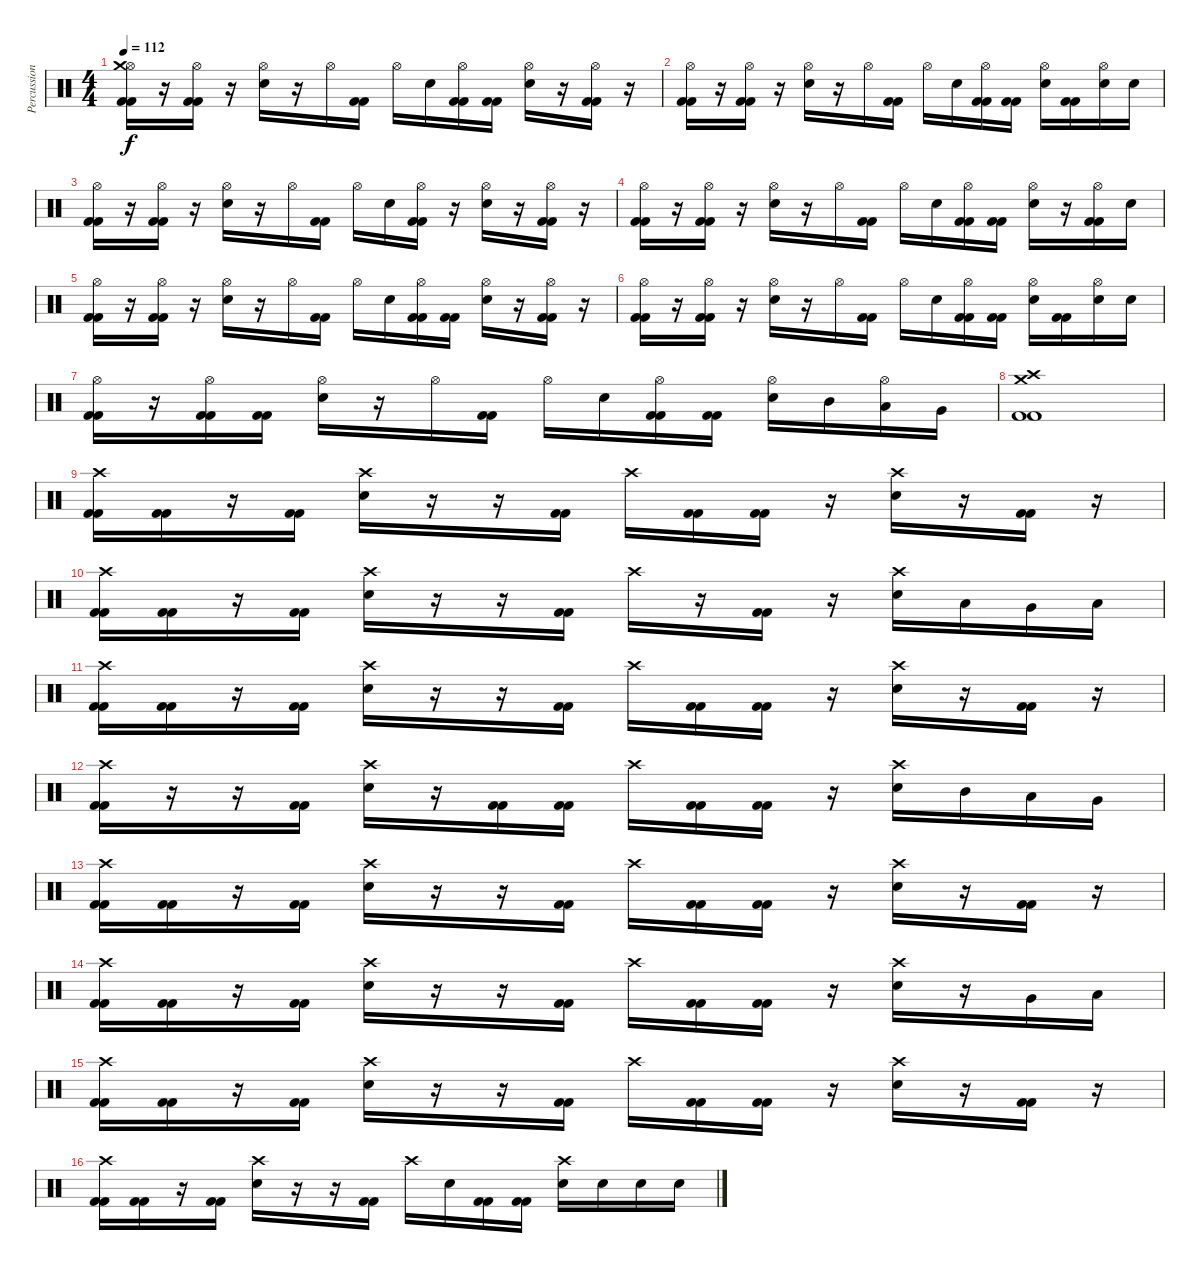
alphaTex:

\track ("Percussion" "Percussion") {instrument percussion}
\staff {score}
\articulation defaults
\ts (4 4)
\tempo 112
\clef neutral
\ks c
("Hi-Hat (open)" "Crash medium (hit)" "Kick (hit) 2" "Kick (hit) 2").16{dy f} r.16 ("Hi-Hat (open)" "Kick (hit) 2" "Kick (hit) 2").16 r.16 ("Hi-Hat (open)" "Electric Snare (hit)").16 r.16 "Hi-Hat (open)".16 ("Kick (hit) 2" "Kick (hit) 2").16 "Hi-Hat (open)".16 "Electric Snare (hit)".16 ("Hi-Hat (open)" "Kick (hit) 2" "Kick (hit) 2").16 ("Kick (hit) 2" "Kick (hit) 2").16 ("Hi-Hat (open)" "Electric Snare (hit)").16 r.16 ("Hi-Hat (open)" "Kick (hit) 2" "Kick (hit) 2").16 r.16 |
("Hi-Hat (open)" "Kick (hit) 2" "Kick (hit) 2").16 r.16 ("Hi-Hat (open)" "Kick (hit) 2" "Kick (hit) 2").16 r.16 ("Hi-Hat (open)" "Electric Snare (hit)").16 r.16 "Hi-Hat (open)".16 ("Kick (hit) 2" "Kick (hit) 2").16 "Hi-Hat (open)".16 "Electric Snare (hit)".16 ("Hi-Hat (open)" "Kick (hit) 2" "Kick (hit) 2").16 ("Kick (hit) 2" "Kick (hit) 2").16 ("Hi-Hat (open)" "Electric Snare (hit)").16 ("Kick (hit) 2" "Kick (hit) 2").16 ("Hi-Hat (open)" "Electric Snare (hit)").16 "Electric Snare (hit)".16 |
("Hi-Hat (open)" "Kick (hit) 2" "Kick (hit) 2").16 r.16 ("Hi-Hat (open)" "Kick (hit) 2" "Kick (hit) 2").16 r.16 ("Hi-Hat (open)" "Electric Snare (hit)").16 r.16 "Hi-Hat (open)".16 ("Kick (hit) 2" "Kick (hit) 2").16 "Hi-Hat (open)".16 "Electric Snare (hit)".16 ("Hi-Hat (open)" "Kick (hit) 2" "Kick (hit) 2").16 r.16 ("Hi-Hat (open)" "Electric Snare (hit)").16 r.16 ("Hi-Hat (open)" "Kick (hit) 2" "Kick (hit) 2").16 r.16 |
("Hi-Hat (open)" "Kick (hit) 2" "Kick (hit) 2").16 r.16 ("Hi-Hat (open)" "Kick (hit) 2" "Kick (hit) 2").16 r.16 ("Hi-Hat (open)" "Electric Snare (hit)").16 r.16 "Hi-Hat (open)".16 ("Kick (hit) 2" "Kick (hit) 2").16 "Hi-Hat (open)".16 "Electric Snare (hit)".16 ("Hi-Hat (open)" "Kick (hit) 2" "Kick (hit) 2").16 ("Kick (hit) 2" "Kick (hit) 2").16 ("Hi-Hat (open)" "Electric Snare (hit)").16 r.16 ("Hi-Hat (open)" "Kick (hit) 2" "Kick (hit) 2").16 "Electric Snare (hit)".16 |
("Hi-Hat (open)" "Kick (hit) 2" "Kick (hit) 2").16 r.16 ("Hi-Hat (open)" "Kick (hit) 2" "Kick (hit) 2").16 r.16 ("Hi-Hat (open)" "Electric Snare (hit)").16 r.16 "Hi-Hat (open)".16 ("Kick (hit) 2" "Kick (hit) 2").16 "Hi-Hat (open)".16 "Electric Snare (hit)".16 ("Hi-Hat (open)" "Kick (hit) 2" "Kick (hit) 2").16 ("Kick (hit) 2" "Kick (hit) 2").16 ("Hi-Hat (open)" "Electric Snare (hit)").16 r.16 ("Hi-Hat (open)" "Kick (hit) 2" "Kick (hit) 2").16 r.16 |
("Hi-Hat (open)" "Kick (hit) 2" "Kick (hit) 2").16 r.16 ("Hi-Hat (open)" "Kick (hit) 2" "Kick (hit) 2").16 r.16 ("Hi-Hat (open)" "Electric Snare (hit)").16 r.16 "Hi-Hat (open)".16 ("Kick (hit) 2" "Kick (hit) 2").16 "Hi-Hat (open)".16 "Electric Snare (hit)".16 ("Hi-Hat (open)" "Kick (hit) 2" "Kick (hit) 2").16 ("Kick (hit) 2" "Kick (hit) 2").16 ("Hi-Hat (open)" "Electric Snare (hit)").16 ("Kick (hit) 2" "Kick (hit) 2").16 ("Hi-Hat (open)" "Electric Snare (hit)").16 "Electric Snare (hit)".16 |
("Hi-Hat (open)" "Kick (hit) 2" "Kick (hit) 2").16 r.16 ("Hi-Hat (open)" "Kick (hit) 2" "Kick (hit) 2").16 ("Kick (hit) 2" "Kick (hit) 2").16 ("Hi-Hat (open)" "Electric Snare (hit)").16 r.16 "Hi-Hat (open)".16 ("Kick (hit) 2" "Kick (hit) 2").16 "Hi-Hat (open)".16 "Electric Snare (hit)".16 ("Hi-Hat (open)" "Kick (hit) 2" "Kick (hit) 2").16 ("Kick (hit) 2" "Kick (hit) 2").16 ("Hi-Hat (open)" "Electric Snare (hit)").16 "Mid Tom (hit)".16 ("Hi-Hat (open)" "Low Tom (hit)").16 "Very Low Tom (hit)".16 |
("Crash medium (hit)" "Crash high (hit)" "Kick (hit) 2" "Kick (hit) 2").1 |
("Crash high (hit)" "Kick (hit) 2" "Kick (hit) 2").16 ("Kick (hit) 2" "Kick (hit) 2").16 r.16 ("Kick (hit) 2" "Kick (hit) 2").16 ("Crash high (hit)" "Electric Snare (hit)").16 r.16 r.16 ("Kick (hit) 2" "Kick (hit) 2").16 "Crash high (hit)".16 ("Kick (hit) 2" "Kick (hit) 2").16 ("Kick (hit) 2" "Kick (hit) 2").16 r.16 ("Crash high (hit)" "Electric Snare (hit)").16 r.16 ("Kick (hit) 2" "Kick (hit) 2").16 r.16 |
("Crash high (hit)" "Kick (hit) 2" "Kick (hit) 2").16 ("Kick (hit) 2" "Kick (hit) 2").16 r.16 ("Kick (hit) 2" "Kick (hit) 2").16 ("Crash high (hit)" "Electric Snare (hit)").16 r.16 r.16 ("Kick (hit) 2" "Kick (hit) 2").16 "Crash high (hit)".16 r.16 ("Kick (hit) 2" "Kick (hit) 2").16 r.16 ("Crash high (hit)" "Electric Snare (hit)").16 "Low Tom (hit)".16 "Very Low Tom (hit)".16 "Low Floor Tom (hit)".16 |
("Crash high (hit)" "Kick (hit) 2" "Kick (hit) 2").16 ("Kick (hit) 2" "Kick (hit) 2").16 r.16 ("Kick (hit) 2" "Kick (hit) 2").16 ("Crash high (hit)" "Electric Snare (hit)").16 r.16 r.16 ("Kick (hit) 2" "Kick (hit) 2").16 "Crash high (hit)".16 ("Kick (hit) 2" "Kick (hit) 2").16 ("Kick (hit) 2" "Kick (hit) 2").16 r.16 ("Crash high (hit)" "Electric Snare (hit)").16 r.16 ("Kick (hit) 2" "Kick (hit) 2").16 r.16 |
("Crash high (hit)" "Kick (hit) 2" "Kick (hit) 2").16 r.16 r.16 ("Kick (hit) 2" "Kick (hit) 2").16 ("Crash high (hit)" "Electric Snare (hit)").16 r.16 ("Kick (hit) 2" "Kick (hit) 2").16 ("Kick (hit) 2" "Kick (hit) 2").16 "Crash high (hit)".16 ("Kick (hit) 2" "Kick (hit) 2").16 ("Kick (hit) 2" "Kick (hit) 2").16 r.16 ("Crash high (hit)" "Electric Snare (hit)").16 "Mid Tom (hit)".16 "Low Tom (hit)".16 "Very Low Tom (hit)".16 |
("Crash high (hit)" "Kick (hit) 2" "Kick (hit) 2").16 ("Kick (hit) 2" "Kick (hit) 2").16 r.16 ("Kick (hit) 2" "Kick (hit) 2").16 ("Crash high (hit)" "Electric Snare (hit)").16 r.16 r.16 ("Kick (hit) 2" "Kick (hit) 2").16 "Crash high (hit)".16 ("Kick (hit) 2" "Kick (hit) 2").16 ("Kick (hit) 2" "Kick (hit) 2").16 r.16 ("Crash high (hit)" "Electric Snare (hit)").16 r.16 ("Kick (hit) 2" "Kick (hit) 2").16 r.16 |
("Crash high (hit)" "Kick (hit) 2" "Kick (hit) 2").16 ("Kick (hit) 2" "Kick (hit) 2").16 r.16 ("Kick (hit) 2" "Kick (hit) 2").16 ("Crash high (hit)" "Electric Snare (hit)").16 r.16 r.16 ("Kick (hit) 2" "Kick (hit) 2").16 "Crash high (hit)".16 ("Kick (hit) 2" "Kick (hit) 2").16 ("Kick (hit) 2" "Kick (hit) 2").16 r.16 ("Crash high (hit)" "Electric Snare (hit)").16 r.16 "Very Low Tom (hit)".16 "Low Floor Tom (hit)".16 |
("Crash high (hit)" "Kick (hit) 2" "Kick (hit) 2").16 ("Kick (hit) 2" "Kick (hit) 2").16 r.16 ("Kick (hit) 2" "Kick (hit) 2").16 ("Crash high (hit)" "Electric Snare (hit)").16 r.16 r.16 ("Kick (hit) 2" "Kick (hit) 2").16 "Crash high (hit)".16 ("Kick (hit) 2" "Kick (hit) 2").16 ("Kick (hit) 2" "Kick (hit) 2").16 r.16 ("Crash high (hit)" "Electric Snare (hit)").16 r.16 ("Kick (hit) 2" "Kick (hit) 2").16 r.16 |
("Crash high (hit)" "Kick (hit) 2" "Kick (hit) 2").16 ("Kick (hit) 2" "Kick (hit) 2").16 r.16 ("Kick (hit) 2" "Kick (hit) 2").16 ("Crash high (hit)" "Electric Snare (hit)").16 r.16 r.16 ("Kick (hit) 2" "Kick (hit) 2").16 "Crash high (hit)".16 "Electric Snare (hit)".16 ("Kick (hit) 2" "Kick (hit) 2").16 ("Kick (hit) 2" "Kick (hit) 2").16 ("Crash high (hit)" "Electric Snare (hit)").16 "Electric Snare (hit)".16 "Electric Snare (hit)".16 "Electric Snare (hit)".16
